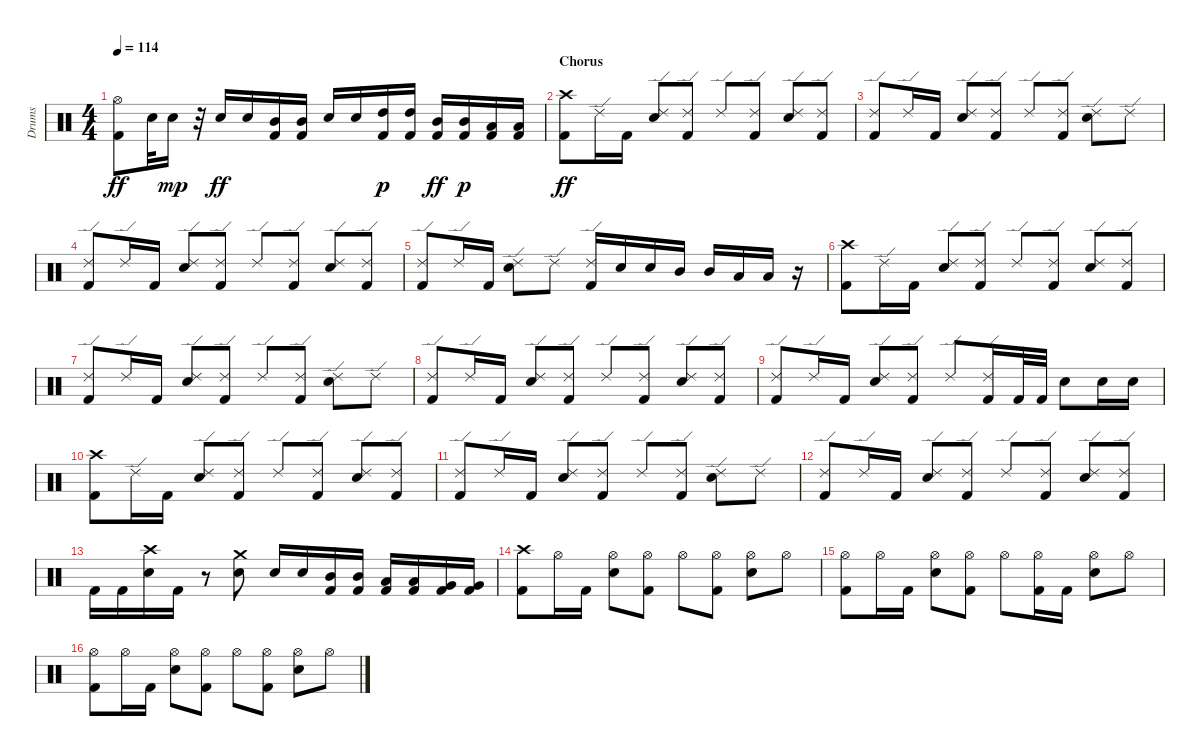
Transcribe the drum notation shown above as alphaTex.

\track ("Drums               " "Drums     ") {instrument percussion}
\staff {score}
\articulation defaults
\ts (4 4)
\tempo 114
\clef neutral
\ks c
("Kick (hit) 2" "Hi-Hat (open)").8{dy ff} "Electric Snare (hit)".32 "Metronome (bell)".16{dy mp} r.32 "Electric Snare (hit)".16{dy ff} "Electric Snare (hit)".16 ("Kick (hit) 2" "Mid Tom (hit)").16 ("Kick (hit) 2" "Mid Tom (hit)").16 "Electric Snare (hit)".16 "Electric Snare (hit)".16 ("High Tom (hit)" "Kick (hit) 2").16{dy p} ("High Tom (hit)" "Kick (hit) 2").16 ("Kick (hit) 2" "Mid Tom (hit)").16{dy ff} ("Mid Tom (hit)" "Kick (hit) 2").16{dy p} ("Low Tom (hit)" "Kick (hit) 2").16 ("Low Tom (hit)" "Kick (hit) 2").16 |
\section ("" "Chorus")
("Kick (hit) 2" "Crash high (hit)").8{dy ff} "Ride (edge) 2".16 "Kick (hit) 2".16 ("Electric Snare (hit)" "Ride (edge) 2").8 ("Kick (hit) 2" "Ride (edge) 2").8 "Ride (edge) 2".8 ("Kick (hit) 2" "Ride (edge) 2").8 ("Electric Snare (hit)" "Ride (edge) 2").8 ("Kick (hit) 2" "Ride (edge) 2").8 |
("Kick (hit) 2" "Ride (edge) 2").8 "Ride (edge) 2".16 "Kick (hit) 2".16 ("Electric Snare (hit)" "Ride (edge) 2").8 ("Kick (hit) 2" "Ride (edge) 2").8 "Ride (edge) 2".8 ("Kick (hit) 2" "Ride (edge) 2").8 ("Electric Snare (hit)" "Ride (edge) 2").8 "Ride (edge) 2".8 |
("Kick (hit) 2" "Ride (edge) 2").8 "Ride (edge) 2".16 "Kick (hit) 2".16 ("Electric Snare (hit)" "Ride (edge) 2").8 ("Kick (hit) 2" "Ride (edge) 2").8 "Ride (edge) 2".8 ("Kick (hit) 2" "Ride (edge) 2").8 ("Electric Snare (hit)" "Ride (edge) 2").8 ("Kick (hit) 2" "Ride (edge) 2").8 |
("Kick (hit) 2" "Ride (edge) 2").8 "Ride (edge) 2".16 "Kick (hit) 2".16 ("Electric Snare (hit)" "Ride (edge) 2").8 "Ride (edge) 2".8 ("Ride (edge) 2" "Kick (hit) 2").16 "Electric Snare (hit)".16 "Electric Snare (hit)".16 "Mid Tom (hit)".16 "Mid Tom (hit)".16 "Low Tom (hit)".16 "Low Tom (hit)".16 r.16 |
("Kick (hit) 2" "Crash high (hit)").8 "Ride (edge) 2".16 "Kick (hit) 2".16 ("Electric Snare (hit)" "Ride (edge) 2").8 ("Kick (hit) 2" "Ride (edge) 2").8 "Ride (edge) 2".8 ("Kick (hit) 2" "Ride (edge) 2").8 ("Ride (edge) 2" "Electric Snare (hit)").8 ("Kick (hit) 2" "Ride (edge) 2").8 |
("Kick (hit) 2" "Ride (edge) 2").8 "Ride (edge) 2".16 "Kick (hit) 2".16 ("Electric Snare (hit)" "Ride (edge) 2").8 ("Kick (hit) 2" "Ride (edge) 2").8 "Ride (edge) 2".8 ("Ride (edge) 2" "Kick (hit) 2").8 ("Ride (edge) 2" "Electric Snare (hit)").8 "Ride (edge) 2".8 |
("Kick (hit) 2" "Ride (edge) 2").8 "Ride (edge) 2".16 "Kick (hit) 2".16 ("Electric Snare (hit)" "Ride (edge) 2").8 ("Kick (hit) 2" "Ride (edge) 2").8 "Ride (edge) 2".8 ("Kick (hit) 2" "Ride (edge) 2").8 ("Ride (edge) 2" "Electric Snare (hit)").8 ("Kick (hit) 2" "Ride (edge) 2").8 |
("Kick (hit) 2" "Ride (edge) 2").8 "Ride (edge) 2".16 "Kick (hit) 2".16 ("Electric Snare (hit)" "Ride (edge) 2").8 ("Kick (hit) 2" "Ride (edge) 2").8 "Ride (edge) 2".8 ("Kick (hit) 2" "Ride (edge) 2").16 "Kick (hit) 2".32 "Kick (hit) 2".32 "Electric Snare (hit)".8 "Electric Snare (hit)".16 "Electric Snare (hit)".16 |
("Kick (hit) 2" "Crash high (hit)").8 "Ride (edge) 2".16 "Kick (hit) 2".16 ("Electric Snare (hit)" "Ride (edge) 2").8 ("Kick (hit) 2" "Ride (edge) 2").8 "Ride (edge) 2".8 ("Kick (hit) 2" "Ride (edge) 2").8 ("Ride (edge) 2" "Electric Snare (hit)").8 ("Kick (hit) 2" "Ride (edge) 2").8 |
("Kick (hit) 2" "Ride (edge) 2").8 "Ride (edge) 2".16 "Kick (hit) 2".16 ("Electric Snare (hit)" "Ride (edge) 2").8 ("Kick (hit) 2" "Ride (edge) 2").8 "Ride (edge) 2".8 ("Ride (edge) 2" "Kick (hit) 2").8 ("Ride (edge) 2" "Electric Snare (hit)").8 "Ride (edge) 2".8 |
("Kick (hit) 2" "Ride (edge) 2").8 "Ride (edge) 2".16 "Kick (hit) 2".16 ("Electric Snare (hit)" "Ride (edge) 2").8 ("Kick (hit) 2" "Ride (edge) 2").8 "Ride (edge) 2".8 ("Kick (hit) 2" "Ride (edge) 2").8 ("Ride (edge) 2" "Electric Snare (hit)").8 ("Kick (hit) 2" "Ride (edge) 2").8 |
"Kick (hit) 2".16 "Kick (hit) 2".16 ("Crash high (hit)" "Electric Snare (hit)").16 "Kick (hit) 2".16 r.8 ("Crash medium (hit)" "Electric Snare (hit)").8 "Electric Snare (hit)".16 "Electric Snare (hit)".16 ("Kick (hit) 2" "Mid Tom (hit)").16 ("Kick (hit) 2" "Mid Tom (hit)").16 ("Kick (hit) 2" "Low Tom (hit)").16 ("Kick (hit) 2" "Low Tom (hit)").16 ("Kick (hit) 2" "Very Low Tom (hit)").16 ("Kick (hit) 2" "Very Low Tom (hit)").16 |
("Kick (hit) 2" "Crash high (hit)").8 "Hi-Hat (open)".16 "Kick (hit) 2".16 ("Hi-Hat (open)" "Electric Snare (hit)").8 ("Kick (hit) 2" "Hi-Hat (open)").8 "Hi-Hat (open)".8 ("Kick (hit) 2" "Hi-Hat (open)").8 ("Hi-Hat (open)" "Electric Snare (hit)").8 "Hi-Hat (open)".8 |
("Kick (hit) 2" "Hi-Hat (open)").8 "Hi-Hat (open)".16 "Kick (hit) 2".16 ("Hi-Hat (open)" "Electric Snare (hit)").8 ("Kick (hit) 2" "Hi-Hat (open)").8 "Hi-Hat (open)".8 ("Kick (hit) 2" "Hi-Hat (open)").16 "Kick (hit) 2".16 ("Hi-Hat (open)" "Electric Snare (hit)").8 "Hi-Hat (open)".8 |
("Kick (hit) 2" "Hi-Hat (open)").8 "Hi-Hat (open)".16 "Kick (hit) 2".16 ("Hi-Hat (open)" "Electric Snare (hit)").8 ("Kick (hit) 2" "Hi-Hat (open)").8 "Hi-Hat (open)".8 ("Kick (hit) 2" "Hi-Hat (open)").8 ("Hi-Hat (open)" "Electric Snare (hit)").8 "Hi-Hat (open)".8
